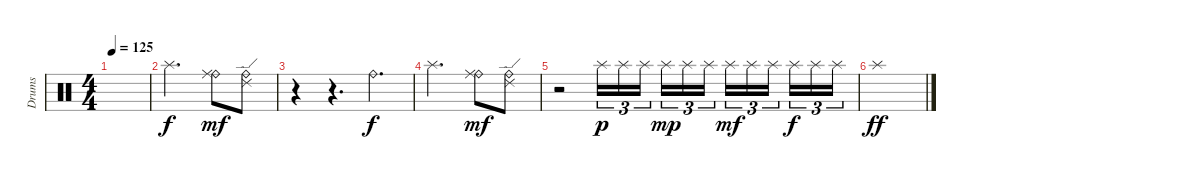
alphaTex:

\track ("Drums" "Drums") {instrument percussion}
\staff {score}
\articulation defaults
\ts (4 4)
\tempo 125
\clef neutral
\ks c
|
"Splash (hit)".2{d} ("Ride (bell)" "Ride (middle)").8{dy mf} ("Ride (bell)" "Ride (edge) 2").8 |
r.4 r.4{d} "Ride (bell)".4{d dy f} |
"Splash (hit)".2{d} ("Ride (bell)" "Ride (middle)").8{dy mf} ("Ride (bell)" "Ride (edge) 2").8 |
r.2 "Splash (hit)".16{tu (3 2) dy p} "Splash (hit)".16{tu (3 2)} "Splash (hit)".16{tu (3 2) beam splitsecondary} "Splash (hit)".16{tu (3 2) dy mp} "Splash (hit)".16{tu (3 2)} "Splash (hit)".16{tu (3 2)} "Splash (hit)".16{tu (3 2) dy mf} "Splash (hit)".16{tu (3 2)} "Splash (hit)".16{tu (3 2) beam splitsecondary} "Splash (hit)".16{tu (3 2) dy f} "Splash (hit)".16{tu (3 2)} "Splash (hit)".16{tu (3 2)} |
"Splash (hit)".1{dy ff}
